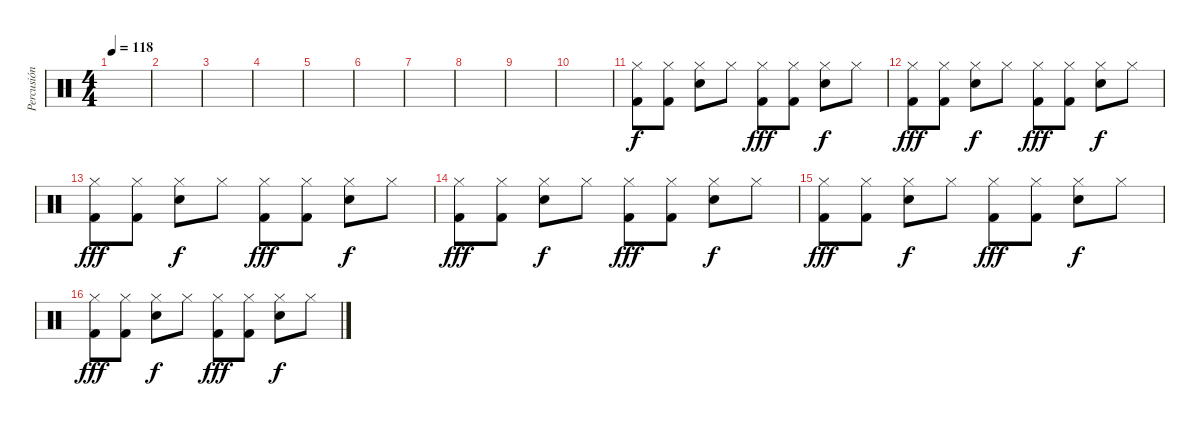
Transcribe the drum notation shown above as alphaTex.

\track ("Percusión" "Percusión") {instrument percussion}
\staff {score}
\articulation defaults
\ts (4 4)
\tempo 118
\clef neutral
\ks c
|
|
|
|
|
|
|
|
|
|
("Hi-Hat (closed)" "Kick (hit) 2").8 ("Hi-Hat (closed)" "Kick (hit) 2").8 ("Hi-Hat (closed)" "Snare (hit) 2").8{dy f} "Hi-Hat (closed)".8 ("Hi-Hat (closed)" "Kick (hit) 2").8{dy fff} ("Hi-Hat (closed)" "Kick (hit) 2").8 ("Hi-Hat (closed)" "Snare (hit) 2").8{dy f} "Hi-Hat (closed)".8 |
("Hi-Hat (closed)" "Kick (hit) 2").8{dy fff} ("Hi-Hat (closed)" "Kick (hit) 2").8 ("Hi-Hat (closed)" "Snare (hit) 2").8{dy f} "Hi-Hat (closed)".8 ("Hi-Hat (closed)" "Kick (hit) 2").8{dy fff} ("Hi-Hat (closed)" "Kick (hit) 2").8 ("Hi-Hat (closed)" "Snare (hit) 2").8{dy f} "Hi-Hat (closed)".8 |
("Hi-Hat (closed)" "Kick (hit) 2").8{dy fff} ("Hi-Hat (closed)" "Kick (hit) 2").8 ("Hi-Hat (closed)" "Snare (hit) 2").8{dy f} "Hi-Hat (closed)".8 ("Hi-Hat (closed)" "Kick (hit) 2").8{dy fff} ("Hi-Hat (closed)" "Kick (hit) 2").8 ("Hi-Hat (closed)" "Snare (hit) 2").8{dy f} "Hi-Hat (closed)".8 |
("Hi-Hat (closed)" "Kick (hit) 2").8{dy fff} ("Hi-Hat (closed)" "Kick (hit) 2").8 ("Hi-Hat (closed)" "Snare (hit) 2").8{dy f} "Hi-Hat (closed)".8 ("Hi-Hat (closed)" "Kick (hit) 2").8{dy fff} ("Hi-Hat (closed)" "Kick (hit) 2").8 ("Hi-Hat (closed)" "Snare (hit) 2").8{dy f} "Hi-Hat (closed)".8 |
("Hi-Hat (closed)" "Kick (hit) 2").8{dy fff} ("Hi-Hat (closed)" "Kick (hit) 2").8 ("Hi-Hat (closed)" "Snare (hit) 2").8{dy f} "Hi-Hat (closed)".8 ("Hi-Hat (closed)" "Kick (hit) 2").8{dy fff} ("Hi-Hat (closed)" "Kick (hit) 2").8 ("Hi-Hat (closed)" "Snare (hit) 2").8{dy f} "Hi-Hat (closed)".8 |
("Hi-Hat (closed)" "Kick (hit) 2").8{dy fff} ("Hi-Hat (closed)" "Kick (hit) 2").8 ("Hi-Hat (closed)" "Snare (hit) 2").8{dy f} "Hi-Hat (closed)".8 ("Hi-Hat (closed)" "Kick (hit) 2").8{dy fff} ("Hi-Hat (closed)" "Kick (hit) 2").8 ("Hi-Hat (closed)" "Snare (hit) 2").8{dy f} "Hi-Hat (closed)".8
